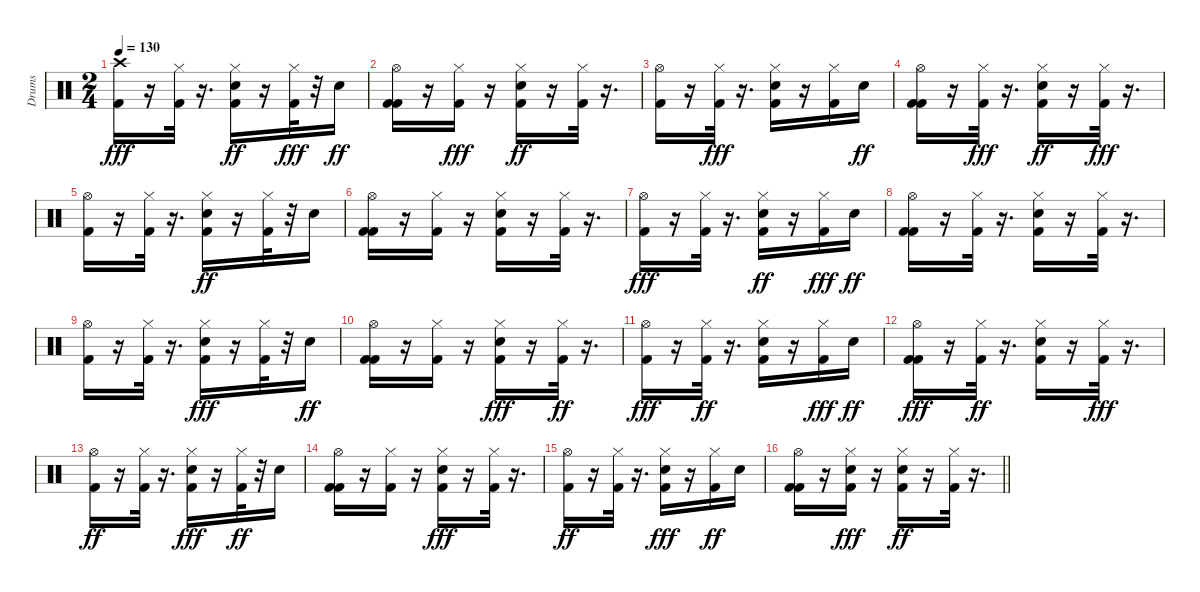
\track ("Drums" "Drums") {solo instrument percussion}
\staff {score}
\articulation defaults
\ts (2 4)
\tempo 130
\clef neutral
\ks c
("Kick (hit) 2" "Crash high (hit)").16{dy fff} r.16 ("Kick (hit) 2" "Hi-Hat (closed)").32 r.16{d} ("Hi-Hat (closed)" "Snare (hit) 2" "Kick (hit) 2").16{dy ff} r.16 ("Kick (hit) 2" "Hi-Hat (closed)").32{dy fff} r.32 "Snare (hit) 2".16{dy ff} |
("Hi-Hat (open)" "Kick (hit) 2" "Kick (hit) 2").16 r.16 ("Kick (hit) 2" "Hi-Hat (closed)").16{dy fff} r.16 ("Snare (hit) 2" "Hi-Hat (closed)" "Kick (hit) 2").16{dy ff} r.16 ("Hi-Hat (closed)" "Kick (hit) 2").32 r.16{d} |
("Hi-Hat (open)" "Kick (hit) 2").16 r.16 ("Kick (hit) 2" "Hi-Hat (closed)").32{dy fff} r.16{d} ("Snare (hit) 2" "Kick (hit) 2" "Hi-Hat (closed)").16 r.16 ("Kick (hit) 2" "Hi-Hat (closed)").16 "Snare (hit) 2".16{dy ff} |
("Kick (hit) 2" "Hi-Hat (open)" "Kick (hit) 2").16 r.16 ("Kick (hit) 2" "Hi-Hat (closed)").32{dy fff} r.16{d} ("Hi-Hat (closed)" "Kick (hit) 2" "Snare (hit) 2").16{dy ff} r.16 ("Kick (hit) 2" "Hi-Hat (closed)").32{dy fff} r.16{d} |
("Kick (hit) 2" "Hi-Hat (open)").16 r.16 ("Kick (hit) 2" "Hi-Hat (closed)").32 r.16{d} ("Snare (hit) 2" "Hi-Hat (closed)" "Kick (hit) 2").16{dy ff} r.16 ("Hi-Hat (closed)" "Kick (hit) 2").32 r.32 "Snare (hit) 2".16 |
("Hi-Hat (open)" "Kick (hit) 2" "Kick (hit) 2").16 r.16 ("Hi-Hat (closed)" "Kick (hit) 2").16 r.16 ("Hi-Hat (closed)" "Kick (hit) 2" "Snare (hit) 2").16 r.16 ("Hi-Hat (closed)" "Kick (hit) 2").32 r.16{d} |
("Kick (hit) 2" "Hi-Hat (open)").16{dy fff} r.16 ("Kick (hit) 2" "Hi-Hat (closed)").32 r.16{d} ("Snare (hit) 2" "Hi-Hat (closed)" "Kick (hit) 2").16{dy ff} r.16 ("Kick (hit) 2" "Hi-Hat (closed)").16{dy fff} "Snare (hit) 2".16{dy ff} |
("Kick (hit) 2" "Hi-Hat (open)" "Kick (hit) 2").16 r.16 ("Hi-Hat (closed)" "Kick (hit) 2").32 r.16{d} ("Hi-Hat (closed)" "Snare (hit) 2" "Kick (hit) 2").16 r.16 ("Hi-Hat (closed)" "Kick (hit) 2").32 r.16{d} |
("Hi-Hat (open)" "Kick (hit) 2").16 r.16 ("Hi-Hat (closed)" "Kick (hit) 2").32 r.16{d} ("Snare (hit) 2" "Kick (hit) 2" "Hi-Hat (closed)").16{dy fff} r.16 ("Kick (hit) 2" "Hi-Hat (closed)").32 r.32 "Snare (hit) 2".16{dy ff} |
("Hi-Hat (open)" "Kick (hit) 2" "Kick (hit) 2").16 r.16 ("Hi-Hat (closed)" "Kick (hit) 2").16 r.16 ("Kick (hit) 2" "Snare (hit) 2" "Hi-Hat (closed)").16{dy fff} r.16 ("Hi-Hat (closed)" "Kick (hit) 2").32{dy ff} r.16{d} |
("Kick (hit) 2" "Hi-Hat (open)").16{dy fff} r.16 ("Hi-Hat (closed)" "Kick (hit) 2").32{dy ff} r.16{d} ("Hi-Hat (closed)" "Snare (hit) 2" "Kick (hit) 2").16 r.16 ("Kick (hit) 2" "Hi-Hat (closed)").16{dy fff} "Snare (hit) 2".16{dy ff} |
("Kick (hit) 2" "Kick (hit) 2" "Hi-Hat (open)").16{dy fff} r.16 ("Hi-Hat (closed)" "Kick (hit) 2").32{dy ff} r.16{d} ("Snare (hit) 2" "Hi-Hat (closed)" "Kick (hit) 2").16 r.16 ("Kick (hit) 2" "Hi-Hat (closed)").32{dy fff} r.16{d} |
("Hi-Hat (open)" "Kick (hit) 2").16{dy ff} r.16 ("Hi-Hat (closed)" "Kick (hit) 2").32 r.16{d} ("Snare (hit) 2" "Kick (hit) 2" "Hi-Hat (closed)").16{dy fff} r.16 ("Hi-Hat (closed)" "Kick (hit) 2").32{dy ff} r.32 "Snare (hit) 2".16 |
("Hi-Hat (open)" "Kick (hit) 2" "Kick (hit) 2").16 r.16 ("Hi-Hat (closed)" "Kick (hit) 2").16 r.16 ("Kick (hit) 2" "Snare (hit) 2" "Hi-Hat (closed)").16{dy fff} r.16 ("Kick (hit) 2" "Hi-Hat (closed)").32 r.16{d} |
("Hi-Hat (open)" "Kick (hit) 2").16{dy ff} r.16 ("Hi-Hat (closed)" "Kick (hit) 2").32 r.16{d} ("Kick (hit) 2" "Snare (hit) 2" "Hi-Hat (closed)").16{dy fff} r.16 ("Hi-Hat (closed)" "Kick (hit) 2").16{dy ff} "Snare (hit) 2".16 |
\barLineRight lightlight
("Kick (hit) 2" "Hi-Hat (open)" "Kick (hit) 2").16 r.16 ("Snare (hit) 2" "Kick (hit) 2" "Hi-Hat (closed)").16{dy fff} r.16 ("Kick (hit) 2" "Hi-Hat (closed)" "Snare (hit) 2").16{dy ff} r.16 ("Hi-Hat (closed)" "Kick (hit) 2").32 r.16{d}
